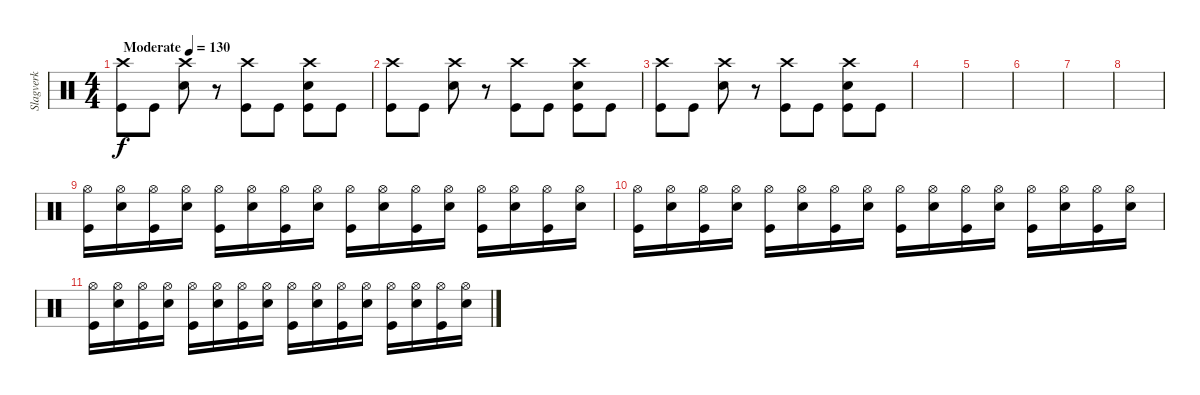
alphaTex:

\track ("Slagverk" "Slagverk") {instrument percussion}
\staff {score}
\articulation defaults
\ts (4 4)
\tempo (130 "Moderate")
\clef neutral
\ks c
("Crash high (hit)" "Kick (hit)").8{dy f} "Kick (hit)".8 ("Crash high (hit)" "Electric Snare (hit)").8 r.8 ("Crash high (hit)" "Kick (hit)").8 "Kick (hit)".8 ("Crash high (hit)" "Electric Snare (hit)" "Kick (hit)").8 "Kick (hit)".8 |
("Crash high (hit)" "Kick (hit)").8 "Kick (hit)".8 ("Crash high (hit)" "Electric Snare (hit)").8 r.8 ("Crash high (hit)" "Kick (hit)").8 "Kick (hit)".8 ("Crash high (hit)" "Electric Snare (hit)" "Kick (hit)").8 "Kick (hit)".8 |
("Crash high (hit)" "Kick (hit)").8 "Kick (hit)".8 ("Crash high (hit)" "Electric Snare (hit)").8 r.8 ("Crash high (hit)" "Kick (hit)").8 "Kick (hit)".8 ("Crash high (hit)" "Electric Snare (hit)" "Kick (hit)").8 "Kick (hit)".8 |
|
|
|
|
|
("Hi-Hat (open)" "Kick (hit)").16 ("Hi-Hat (open)" "Electric Snare (hit)").16 ("Hi-Hat (open)" "Kick (hit)").16 ("Hi-Hat (open)" "Electric Snare (hit)").16 ("Hi-Hat (open)" "Kick (hit)").16 ("Hi-Hat (open)" "Electric Snare (hit)").16 ("Hi-Hat (open)" "Kick (hit)").16 ("Hi-Hat (open)" "Electric Snare (hit)").16 ("Hi-Hat (open)" "Kick (hit)").16 ("Hi-Hat (open)" "Electric Snare (hit)").16 ("Hi-Hat (open)" "Kick (hit)").16 ("Hi-Hat (open)" "Electric Snare (hit)").16 ("Hi-Hat (open)" "Kick (hit)").16 ("Hi-Hat (open)" "Electric Snare (hit)").16 ("Hi-Hat (open)" "Kick (hit)").16 ("Hi-Hat (open)" "Electric Snare (hit)").16 |
("Hi-Hat (open)" "Kick (hit)").16 ("Hi-Hat (open)" "Electric Snare (hit)").16 ("Hi-Hat (open)" "Kick (hit)").16 ("Hi-Hat (open)" "Electric Snare (hit)").16 ("Hi-Hat (open)" "Kick (hit)").16 ("Hi-Hat (open)" "Electric Snare (hit)").16 ("Hi-Hat (open)" "Kick (hit)").16 ("Hi-Hat (open)" "Electric Snare (hit)").16 ("Hi-Hat (open)" "Kick (hit)").16 ("Hi-Hat (open)" "Electric Snare (hit)").16 ("Hi-Hat (open)" "Kick (hit)").16 ("Hi-Hat (open)" "Electric Snare (hit)").16 ("Hi-Hat (open)" "Kick (hit)").16 ("Hi-Hat (open)" "Electric Snare (hit)").16 ("Hi-Hat (open)" "Kick (hit)").16 ("Hi-Hat (open)" "Electric Snare (hit)").16 |
("Hi-Hat (open)" "Kick (hit)").16 ("Hi-Hat (open)" "Electric Snare (hit)").16 ("Hi-Hat (open)" "Kick (hit)").16 ("Hi-Hat (open)" "Electric Snare (hit)").16 ("Hi-Hat (open)" "Kick (hit)").16 ("Hi-Hat (open)" "Electric Snare (hit)").16 ("Hi-Hat (open)" "Kick (hit)").16 ("Hi-Hat (open)" "Electric Snare (hit)").16 ("Hi-Hat (open)" "Kick (hit)").16 ("Hi-Hat (open)" "Electric Snare (hit)").16 ("Hi-Hat (open)" "Kick (hit)").16 ("Hi-Hat (open)" "Electric Snare (hit)").16 ("Hi-Hat (open)" "Kick (hit)").16 ("Hi-Hat (open)" "Electric Snare (hit)").16 ("Hi-Hat (open)" "Kick (hit)").16 ("Hi-Hat (open)" "Electric Snare (hit)").16
